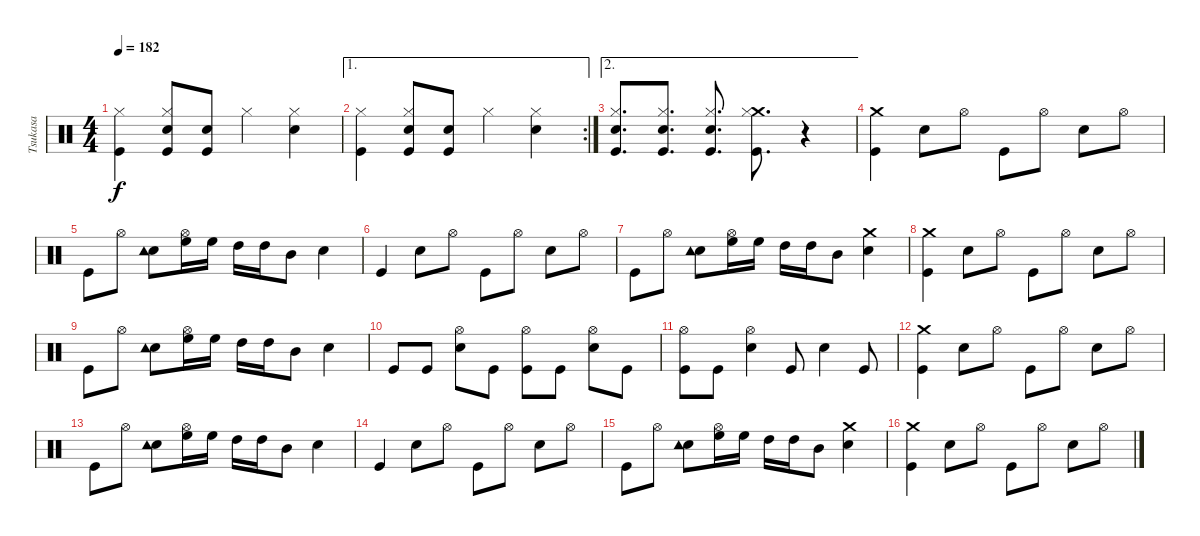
\track ("Tsukasa" "Tsukasa") {instrument percussion}
\staff {score}
\articulation defaults
\ts (4 4)
\tempo 182
\clef neutral
\ks c
("Kick (hit)" "Hi-Hat (closed)").4{dy f} ("Electric Snare (hit)" "Hi-Hat (closed)" "Kick (hit)").8 ("Electric Snare (hit)" "Kick (hit)").8 "Hi-Hat (closed)".4 ("Electric Snare (hit)" "Hi-Hat (closed)").4 |
\ae 1
\rc 2
("Kick (hit)" "Hi-Hat (closed)").4 ("Electric Snare (hit)" "Hi-Hat (closed)" "Kick (hit)").8 ("Electric Snare (hit)" "Kick (hit)").8 "Hi-Hat (closed)".4 ("Electric Snare (hit)" "Hi-Hat (closed)").4 |
\ae 2
("Kick (hit)" "Electric Snare (hit)" "Hi-Hat (closed)").8{d} ("Kick (hit)" "Electric Snare (hit)" "Hi-Hat (closed)").8{d} ("Kick (hit)" "Electric Snare (hit)" "Hi-Hat (closed)").8{d} ("Kick (hit)" "Crash medium (hit)" "Hi-Hat (closed)").8{d} r.4 |
("Kick (hit)" "Crash medium (hit)").4 "Electric Snare (hit)".8 "Hi-Hat (open)".8 "Kick (hit)".8 "Hi-Hat (open)".8 "Electric Snare (hit)".8 "Hi-Hat (open)".8 |
"Kick (hit)".8 "Hi-Hat (open)".8 ("Electric Snare (hit)" "Tambourine (hit)").8 ("High Floor Tom (hit)" "Hi-Hat (open)").16 "High Floor Tom (hit)".16 "High Tom (hit)".16 "High Tom (hit)".16 "Mid Tom (hit)".8 "Electric Snare (hit)".4 |
"Kick (hit)".4 "Electric Snare (hit)".8 "Hi-Hat (open)".8 "Kick (hit)".8 "Hi-Hat (open)".8 "Electric Snare (hit)".8 "Hi-Hat (open)".8 |
"Kick (hit)".8 "Hi-Hat (open)".8 ("Electric Snare (hit)" "Tambourine (hit)").8 ("High Floor Tom (hit)" "Hi-Hat (open)").16 "High Floor Tom (hit)".16 "High Tom (hit)".16 "High Tom (hit)".16 "Mid Tom (hit)".8 ("Electric Snare (hit)" "Crash medium (hit)").4 |
("Kick (hit)" "Crash medium (hit)").4 "Electric Snare (hit)".8 "Hi-Hat (open)".8 "Kick (hit)".8 "Hi-Hat (open)".8 "Electric Snare (hit)".8 "Hi-Hat (open)".8 |
"Kick (hit)".8 "Hi-Hat (open)".8 ("Electric Snare (hit)" "Tambourine (hit)").8 ("High Floor Tom (hit)" "Hi-Hat (open)").16 "High Floor Tom (hit)".16 "High Tom (hit)".16 "High Tom (hit)".16 "Mid Tom (hit)".8 "Electric Snare (hit)".4 |
"Kick (hit)".8 "Kick (hit)".8 ("Electric Snare (hit)" "Hi-Hat (open)").8 "Kick (hit)".8 ("Kick (hit)" "Hi-Hat (open)").8 "Kick (hit)".8 ("Electric Snare (hit)" "Hi-Hat (open)").8 "Kick (hit)".8 |
("Kick (hit)" "Hi-Hat (open)").8 "Kick (hit)".8 ("Electric Snare (hit)" "Hi-Hat (open)").4 "Kick (hit)".8 "Electric Snare (hit)".4 "Kick (hit)".8 |
("Kick (hit)" "Crash medium (hit)").4 "Electric Snare (hit)".8 "Hi-Hat (open)".8 "Kick (hit)".8 "Hi-Hat (open)".8 "Electric Snare (hit)".8 "Hi-Hat (open)".8 |
"Kick (hit)".8 "Hi-Hat (open)".8 ("Electric Snare (hit)" "Tambourine (hit)").8 ("High Floor Tom (hit)" "Hi-Hat (open)").16 "High Floor Tom (hit)".16 "High Tom (hit)".16 "High Tom (hit)".16 "Mid Tom (hit)".8 "Electric Snare (hit)".4 |
"Kick (hit)".4 "Electric Snare (hit)".8 "Hi-Hat (open)".8 "Kick (hit)".8 "Hi-Hat (open)".8 "Electric Snare (hit)".8 "Hi-Hat (open)".8 |
"Kick (hit)".8 "Hi-Hat (open)".8 ("Electric Snare (hit)" "Tambourine (hit)").8 ("High Floor Tom (hit)" "Hi-Hat (open)").16 "High Floor Tom (hit)".16 "High Tom (hit)".16 "High Tom (hit)".16 "Mid Tom (hit)".8 ("Electric Snare (hit)" "Crash medium (hit)").4 |
("Kick (hit)" "Crash medium (hit)").4 "Electric Snare (hit)".8 "Hi-Hat (open)".8 "Kick (hit)".8 "Hi-Hat (open)".8 "Electric Snare (hit)".8 "Hi-Hat (open)".8
